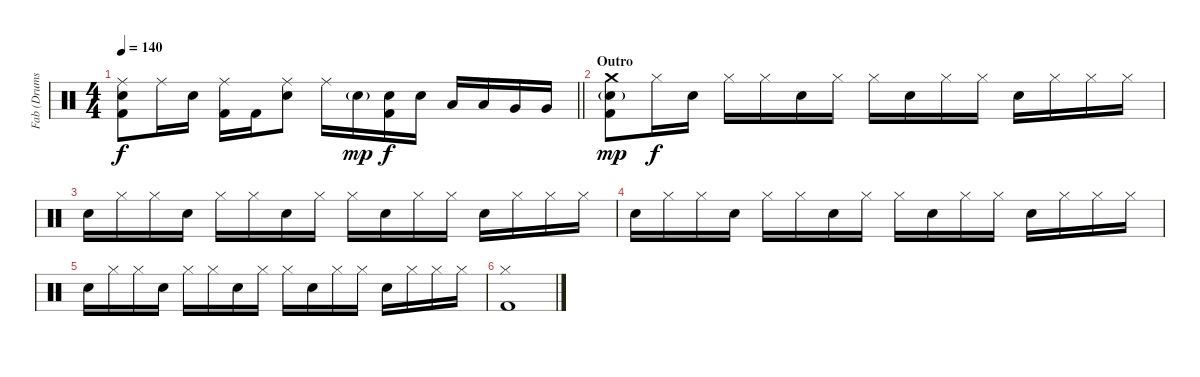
\track ("Fab (Drums)" "Fab (Drums") {instrument percussion}
\staff {score}
\articulation defaults
\ts (4 4)
\tempo 140
\clef neutral
\barLineRight lightlight
\ks c
("Ride (middle)" "Snare (hit) 2" "Kick (hit) 2").8{dy f} "Ride (middle)".16 "Snare (hit) 2".16 ("Ride (middle)" "Kick (hit) 2").16 "Kick (hit) 2".16 ("Ride (middle)" "Snare (hit) 2").8 "Ride (middle)".16 "Snare (hit) 2"{g}.16{dy mp} ("Snare (hit) 2" "Kick (hit) 2").16{dy f} "Snare (hit) 2".16 "Low Tom (hit)".16 "Low Tom (hit)".16 "Very Low Tom (hit)".16 "Very Low Tom (hit)".16 |
\section ("" "Outro")
("Crash medium (hit)" "Snare (hit) 2"{g} "Kick (hit) 2").8{dy mp} "Hi-Hat (closed)".16{dy f} "Snare (hit) 2".16 "Hi-Hat (closed)".16 "Hi-Hat (closed)".16 "Snare (hit) 2".16 "Hi-Hat (closed)".16 "Hi-Hat (closed)".16 "Snare (hit) 2".16 "Hi-Hat (closed)".16 "Hi-Hat (closed)".16 "Snare (hit) 2".16 "Hi-Hat (closed)".16 "Hi-Hat (closed)".16 "Hi-Hat (closed)".16 |
"Snare (hit) 2".16 "Hi-Hat (closed)".16 "Hi-Hat (closed)".16 "Snare (hit) 2".16 "Hi-Hat (closed)".16 "Hi-Hat (closed)".16 "Snare (hit) 2".16 "Hi-Hat (closed)".16 "Hi-Hat (closed)".16 "Snare (hit) 2".16 "Hi-Hat (closed)".16 "Hi-Hat (closed)".16 "Snare (hit) 2".16 "Hi-Hat (closed)".16 "Hi-Hat (closed)".16 "Hi-Hat (closed)".16 |
"Snare (hit) 2".16 "Hi-Hat (closed)".16 "Hi-Hat (closed)".16 "Snare (hit) 2".16 "Hi-Hat (closed)".16 "Hi-Hat (closed)".16 "Snare (hit) 2".16 "Hi-Hat (closed)".16 "Hi-Hat (closed)".16 "Snare (hit) 2".16 "Hi-Hat (closed)".16 "Hi-Hat (closed)".16 "Snare (hit) 2".16 "Hi-Hat (closed)".16 "Hi-Hat (closed)".16 "Hi-Hat (closed)".16 |
"Snare (hit) 2".16 "Hi-Hat (closed)".16 "Hi-Hat (closed)".16 "Snare (hit) 2".16 "Hi-Hat (closed)".16 "Hi-Hat (closed)".16 "Snare (hit) 2".16 "Hi-Hat (closed)".16 "Hi-Hat (closed)".16 "Snare (hit) 2".16 "Hi-Hat (closed)".16 "Hi-Hat (closed)".16 "Snare (hit) 2".16 "Hi-Hat (closed)".16 "Hi-Hat (closed)".16 "Hi-Hat (closed)".16 |
("Hi-Hat (closed)" "Kick (hit) 2").1
